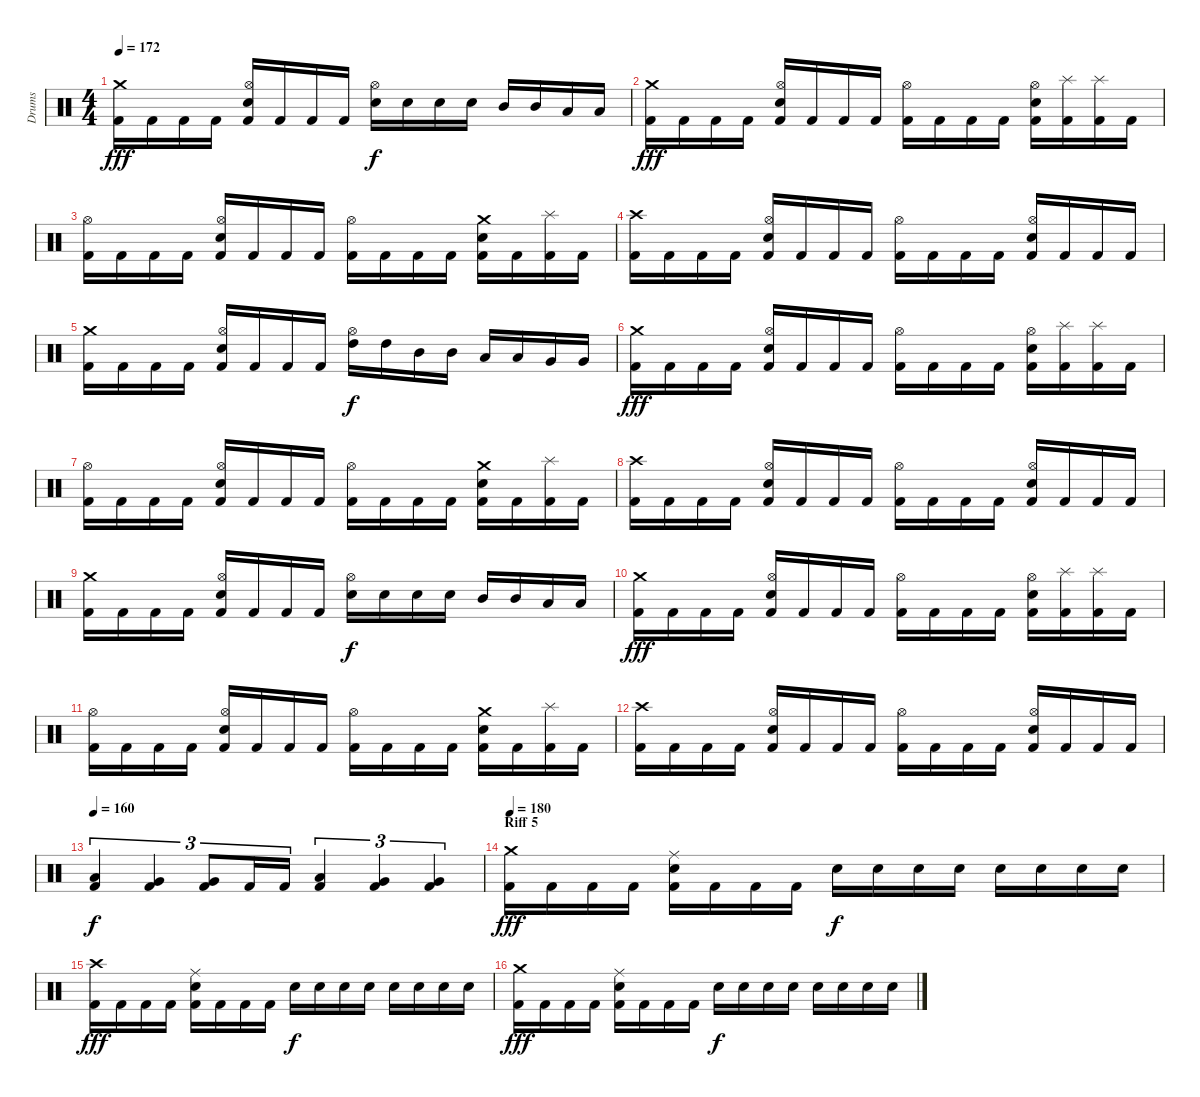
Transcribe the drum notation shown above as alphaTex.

\track ("Drums" "Drums") {instrument percussion}
\staff {score}
\articulation defaults
\ts (4 4)
\tempo 172
\clef neutral
\ks c
("Crash medium (hit)" "Kick (hit) 2").16{dy fff} "Kick (hit) 2".16 "Kick (hit) 2".16 "Kick (hit) 2".16 ("Hi-Hat (open)" "Electric Snare (hit)" "Kick (hit) 2").16 "Kick (hit) 2".16 "Kick (hit) 2".16 "Kick (hit) 2".16 ("Hi-Hat (open)" "Electric Snare (hit)").16{dy f} "Electric Snare (hit)".16 "Electric Snare (hit)".16 "Electric Snare (hit)".16 "Mid Tom (hit)".16 "Mid Tom (hit)".16 "Low Tom (hit)".16 "Low Tom (hit)".16 |
("Crash medium (hit)" "Kick (hit) 2").16{dy fff} "Kick (hit) 2".16 "Kick (hit) 2".16 "Kick (hit) 2".16 ("Hi-Hat (open)" "Electric Snare (hit)" "Kick (hit) 2").16 "Kick (hit) 2".16 "Kick (hit) 2".16 "Kick (hit) 2".16 ("Hi-Hat (open)" "Kick (hit) 2").16 "Kick (hit) 2".16 "Kick (hit) 2".16 "Kick (hit) 2".16 ("Hi-Hat (open)" "Electric Snare (hit)" "Kick (hit) 2").16 ("Splash (hit)" "Kick (hit) 2").16 ("Splash (hit)" "Kick (hit) 2").16 "Kick (hit) 2".16 |
("Hi-Hat (open)" "Kick (hit) 2").16 "Kick (hit) 2".16 "Kick (hit) 2".16 "Kick (hit) 2".16 ("Hi-Hat (open)" "Electric Snare (hit)" "Kick (hit) 2").16 "Kick (hit) 2".16 "Kick (hit) 2".16 "Kick (hit) 2".16 ("Hi-Hat (open)" "Kick (hit) 2").16 "Kick (hit) 2".16 "Kick (hit) 2".16 "Kick (hit) 2".16 ("Crash medium (hit)" "Electric Snare (hit)" "Kick (hit) 2").16 "Kick (hit) 2".16 ("Splash (hit)" "Kick (hit) 2").16 "Kick (hit) 2".16 |
("Crash high (hit)" "Kick (hit) 2").16 "Kick (hit) 2".16 "Kick (hit) 2".16 "Kick (hit) 2".16 ("Hi-Hat (open)" "Electric Snare (hit)" "Kick (hit) 2").16 "Kick (hit) 2".16 "Kick (hit) 2".16 "Kick (hit) 2".16 ("Hi-Hat (open)" "Kick (hit) 2").16 "Kick (hit) 2".16 "Kick (hit) 2".16 "Kick (hit) 2".16 ("Hi-Hat (open)" "Electric Snare (hit)" "Kick (hit) 2").16 "Kick (hit) 2".16 "Kick (hit) 2".16 "Kick (hit) 2".16 |
("Crash medium (hit)" "Kick (hit) 2").16 "Kick (hit) 2".16 "Kick (hit) 2".16 "Kick (hit) 2".16 ("Hi-Hat (open)" "Electric Snare (hit)" "Kick (hit) 2").16 "Kick (hit) 2".16 "Kick (hit) 2".16 "Kick (hit) 2".16 ("Hi-Hat (open)" "High Tom (hit)").16{dy f} "High Tom (hit)".16 "Mid Tom (hit)".16 "Mid Tom (hit)".16 "Low Tom (hit)".16 "Low Tom (hit)".16 "Very Low Tom (hit)".16 "Very Low Tom (hit)".16 |
("Crash medium (hit)" "Kick (hit) 2").16{dy fff} "Kick (hit) 2".16 "Kick (hit) 2".16 "Kick (hit) 2".16 ("Hi-Hat (open)" "Electric Snare (hit)" "Kick (hit) 2").16 "Kick (hit) 2".16 "Kick (hit) 2".16 "Kick (hit) 2".16 ("Hi-Hat (open)" "Kick (hit) 2").16 "Kick (hit) 2".16 "Kick (hit) 2".16 "Kick (hit) 2".16 ("Hi-Hat (open)" "Electric Snare (hit)" "Kick (hit) 2").16 ("Splash (hit)" "Kick (hit) 2").16 ("Splash (hit)" "Kick (hit) 2").16 "Kick (hit) 2".16 |
("Hi-Hat (open)" "Kick (hit) 2").16 "Kick (hit) 2".16 "Kick (hit) 2".16 "Kick (hit) 2".16 ("Hi-Hat (open)" "Electric Snare (hit)" "Kick (hit) 2").16 "Kick (hit) 2".16 "Kick (hit) 2".16 "Kick (hit) 2".16 ("Hi-Hat (open)" "Kick (hit) 2").16 "Kick (hit) 2".16 "Kick (hit) 2".16 "Kick (hit) 2".16 ("Crash medium (hit)" "Electric Snare (hit)" "Kick (hit) 2").16 "Kick (hit) 2".16 ("Splash (hit)" "Kick (hit) 2").16 "Kick (hit) 2".16 |
("Crash high (hit)" "Kick (hit) 2").16 "Kick (hit) 2".16 "Kick (hit) 2".16 "Kick (hit) 2".16 ("Hi-Hat (open)" "Electric Snare (hit)" "Kick (hit) 2").16 "Kick (hit) 2".16 "Kick (hit) 2".16 "Kick (hit) 2".16 ("Hi-Hat (open)" "Kick (hit) 2").16 "Kick (hit) 2".16 "Kick (hit) 2".16 "Kick (hit) 2".16 ("Hi-Hat (open)" "Electric Snare (hit)" "Kick (hit) 2").16 "Kick (hit) 2".16 "Kick (hit) 2".16 "Kick (hit) 2".16 |
("Crash medium (hit)" "Kick (hit) 2").16 "Kick (hit) 2".16 "Kick (hit) 2".16 "Kick (hit) 2".16 ("Hi-Hat (open)" "Electric Snare (hit)" "Kick (hit) 2").16 "Kick (hit) 2".16 "Kick (hit) 2".16 "Kick (hit) 2".16 ("Hi-Hat (open)" "Electric Snare (hit)").16{dy f} "Electric Snare (hit)".16 "Electric Snare (hit)".16 "Electric Snare (hit)".16 "Mid Tom (hit)".16 "Mid Tom (hit)".16 "Low Tom (hit)".16 "Low Tom (hit)".16 |
("Crash medium (hit)" "Kick (hit) 2").16{dy fff} "Kick (hit) 2".16 "Kick (hit) 2".16 "Kick (hit) 2".16 ("Hi-Hat (open)" "Electric Snare (hit)" "Kick (hit) 2").16 "Kick (hit) 2".16 "Kick (hit) 2".16 "Kick (hit) 2".16 ("Hi-Hat (open)" "Kick (hit) 2").16 "Kick (hit) 2".16 "Kick (hit) 2".16 "Kick (hit) 2".16 ("Hi-Hat (open)" "Electric Snare (hit)" "Kick (hit) 2").16 ("Splash (hit)" "Kick (hit) 2").16 ("Splash (hit)" "Kick (hit) 2").16 "Kick (hit) 2".16 |
("Hi-Hat (open)" "Kick (hit) 2").16 "Kick (hit) 2".16 "Kick (hit) 2".16 "Kick (hit) 2".16 ("Hi-Hat (open)" "Electric Snare (hit)" "Kick (hit) 2").16 "Kick (hit) 2".16 "Kick (hit) 2".16 "Kick (hit) 2".16 ("Hi-Hat (open)" "Kick (hit) 2").16 "Kick (hit) 2".16 "Kick (hit) 2".16 "Kick (hit) 2".16 ("Crash medium (hit)" "Electric Snare (hit)" "Kick (hit) 2").16 "Kick (hit) 2".16 ("Splash (hit)" "Kick (hit) 2").16 "Kick (hit) 2".16 |
("Crash high (hit)" "Kick (hit) 2").16 "Kick (hit) 2".16 "Kick (hit) 2".16 "Kick (hit) 2".16 ("Hi-Hat (open)" "Electric Snare (hit)" "Kick (hit) 2").16 "Kick (hit) 2".16 "Kick (hit) 2".16 "Kick (hit) 2".16 ("Hi-Hat (open)" "Kick (hit) 2").16 "Kick (hit) 2".16 "Kick (hit) 2".16 "Kick (hit) 2".16 ("Hi-Hat (open)" "Electric Snare (hit)" "Kick (hit) 2").16 "Kick (hit) 2".16 "Kick (hit) 2".16 "Kick (hit) 2".16 |
\tempo 160
("Low Tom (hit)" "Kick (hit) 2").4{tu (3 2) dy f} ("Very Low Tom (hit)" "Kick (hit) 2").4{tu (3 2)} ("Very Low Tom (hit)" "Kick (hit) 2").8{tu (3 2)} "Kick (hit) 2".16{tu (3 2)} "Kick (hit) 2".16{tu (3 2)} ("Low Tom (hit)" "Kick (hit) 2").4{tu (3 2)} ("Very Low Tom (hit)" "Kick (hit) 2").4{tu (3 2)} ("Very Low Tom (hit)" "Kick (hit) 2").4{tu (3 2)} |
\section ("" "Riff 5")
\tempo 180
("Crash medium (hit)" "Kick (hit) 2").16{dy fff} "Kick (hit) 2".16 "Kick (hit) 2".16 "Kick (hit) 2".16 ("Ride (middle)" "Electric Snare (hit)" "Kick (hit) 2").16 "Kick (hit) 2".16 "Kick (hit) 2".16 "Kick (hit) 2".16 "Electric Snare (hit)".16{dy f} "Electric Snare (hit)".16 "Electric Snare (hit)".16 "Electric Snare (hit)".16 "Electric Snare (hit)".16 "Electric Snare (hit)".16 "Electric Snare (hit)".16 "Electric Snare (hit)".16 |
("Crash high (hit)" "Kick (hit) 2").16{dy fff} "Kick (hit) 2".16 "Kick (hit) 2".16 "Kick (hit) 2".16 ("Ride (middle)" "Electric Snare (hit)" "Kick (hit) 2").16 "Kick (hit) 2".16 "Kick (hit) 2".16 "Kick (hit) 2".16 "Electric Snare (hit)".16{dy f} "Electric Snare (hit)".16 "Electric Snare (hit)".16 "Electric Snare (hit)".16 "Electric Snare (hit)".16 "Electric Snare (hit)".16 "Electric Snare (hit)".16 "Electric Snare (hit)".16 |
("Crash medium (hit)" "Kick (hit) 2").16{dy fff} "Kick (hit) 2".16 "Kick (hit) 2".16 "Kick (hit) 2".16 ("Ride (middle)" "Electric Snare (hit)" "Kick (hit) 2").16 "Kick (hit) 2".16 "Kick (hit) 2".16 "Kick (hit) 2".16 "Electric Snare (hit)".16{dy f} "Electric Snare (hit)".16 "Electric Snare (hit)".16 "Electric Snare (hit)".16 "Electric Snare (hit)".16 "Electric Snare (hit)".16 "Electric Snare (hit)".16 "Electric Snare (hit)".16
